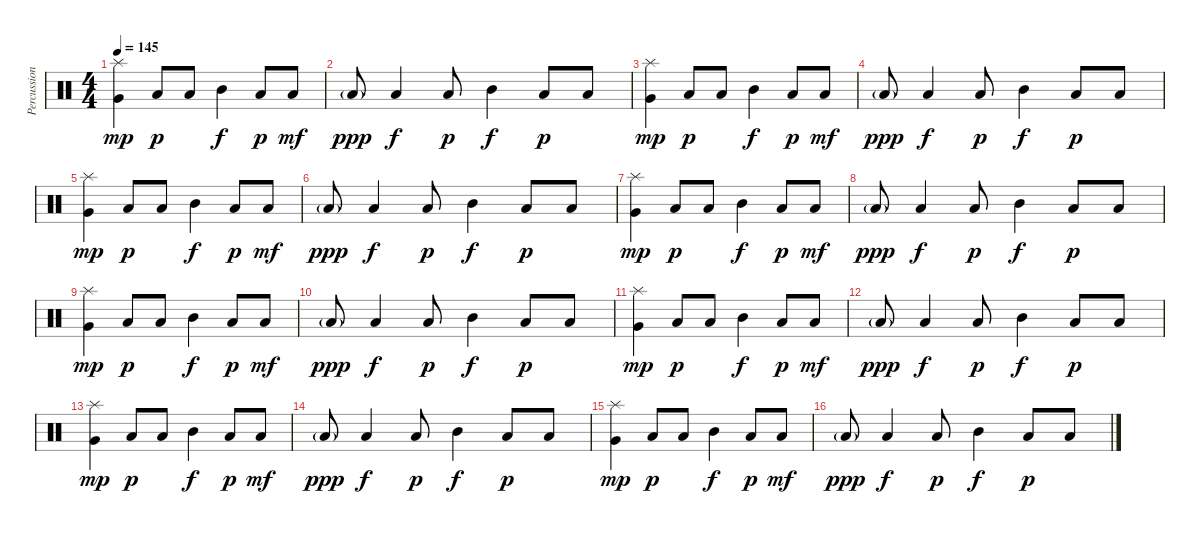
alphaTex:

\track ("Percussion" "Percussion") {instrument percussion}
\staff {score}
\articulation defaults
\ts (4 4)
\tempo 145
\clef neutral
\ks c
("Splash (hit)" "Very Low Tom (hit)").4{dy mp} "Low Floor Tom (hit)".8{dy p} "Low Floor Tom (hit)".8 "Mid Tom (hit)".4{dy f} "Low Floor Tom (hit)".8{dy p} "Low Tom (hit)".8{dy mf} |
"Low Floor Tom (hit)"{g}.8{dy ppp} "Low Tom (hit)".4{dy f} "Low Floor Tom (hit)".8{dy p} "Mid Tom (hit)".4{dy f} "Low Floor Tom (hit)".8{dy p} "Low Floor Tom (hit)".8 |
("Splash (hit)" "Very Low Tom (hit)").4{dy mp} "Low Floor Tom (hit)".8{dy p} "Low Floor Tom (hit)".8 "Mid Tom (hit)".4{dy f} "Low Floor Tom (hit)".8{dy p} "Low Tom (hit)".8{dy mf} |
"Low Floor Tom (hit)"{g}.8{dy ppp} "Low Tom (hit)".4{dy f} "Low Floor Tom (hit)".8{dy p} "Mid Tom (hit)".4{dy f} "Low Floor Tom (hit)".8{dy p} "Low Floor Tom (hit)".8 |
("Splash (hit)" "Very Low Tom (hit)").4{dy mp} "Low Floor Tom (hit)".8{dy p} "Low Floor Tom (hit)".8 "Mid Tom (hit)".4{dy f} "Low Floor Tom (hit)".8{dy p} "Low Tom (hit)".8{dy mf} |
"Low Floor Tom (hit)"{g}.8{dy ppp} "Low Tom (hit)".4{dy f} "Low Floor Tom (hit)".8{dy p} "Mid Tom (hit)".4{dy f} "Low Floor Tom (hit)".8{dy p} "Low Floor Tom (hit)".8 |
("Splash (hit)" "Very Low Tom (hit)").4{dy mp} "Low Floor Tom (hit)".8{dy p} "Low Floor Tom (hit)".8 "Mid Tom (hit)".4{dy f} "Low Floor Tom (hit)".8{dy p} "Low Tom (hit)".8{dy mf} |
"Low Floor Tom (hit)"{g}.8{dy ppp} "Low Tom (hit)".4{dy f} "Low Floor Tom (hit)".8{dy p} "Mid Tom (hit)".4{dy f} "Low Floor Tom (hit)".8{dy p} "Low Floor Tom (hit)".8 |
("Splash (hit)" "Very Low Tom (hit)").4{dy mp} "Low Floor Tom (hit)".8{dy p} "Low Floor Tom (hit)".8 "Mid Tom (hit)".4{dy f} "Low Floor Tom (hit)".8{dy p} "Low Tom (hit)".8{dy mf} |
"Low Floor Tom (hit)"{g}.8{dy ppp} "Low Tom (hit)".4{dy f} "Low Floor Tom (hit)".8{dy p} "Mid Tom (hit)".4{dy f} "Low Floor Tom (hit)".8{dy p} "Low Floor Tom (hit)".8 |
("Splash (hit)" "Very Low Tom (hit)").4{dy mp} "Low Floor Tom (hit)".8{dy p} "Low Floor Tom (hit)".8 "Mid Tom (hit)".4{dy f} "Low Floor Tom (hit)".8{dy p} "Low Tom (hit)".8{dy mf} |
"Low Floor Tom (hit)"{g}.8{dy ppp} "Low Tom (hit)".4{dy f} "Low Floor Tom (hit)".8{dy p} "Mid Tom (hit)".4{dy f} "Low Floor Tom (hit)".8{dy p} "Low Floor Tom (hit)".8 |
("Splash (hit)" "Very Low Tom (hit)").4{dy mp} "Low Floor Tom (hit)".8{dy p} "Low Floor Tom (hit)".8 "Mid Tom (hit)".4{dy f} "Low Floor Tom (hit)".8{dy p} "Low Tom (hit)".8{dy mf} |
"Low Floor Tom (hit)"{g}.8{dy ppp} "Low Tom (hit)".4{dy f} "Low Floor Tom (hit)".8{dy p} "Mid Tom (hit)".4{dy f} "Low Floor Tom (hit)".8{dy p} "Low Floor Tom (hit)".8 |
("Splash (hit)" "Very Low Tom (hit)").4{dy mp} "Low Floor Tom (hit)".8{dy p} "Low Floor Tom (hit)".8 "Mid Tom (hit)".4{dy f} "Low Floor Tom (hit)".8{dy p} "Low Tom (hit)".8{dy mf} |
"Low Floor Tom (hit)"{g}.8{dy ppp} "Low Tom (hit)".4{dy f} "Low Floor Tom (hit)".8{dy p} "Mid Tom (hit)".4{dy f} "Low Floor Tom (hit)".8{dy p} "Low Floor Tom (hit)".8
